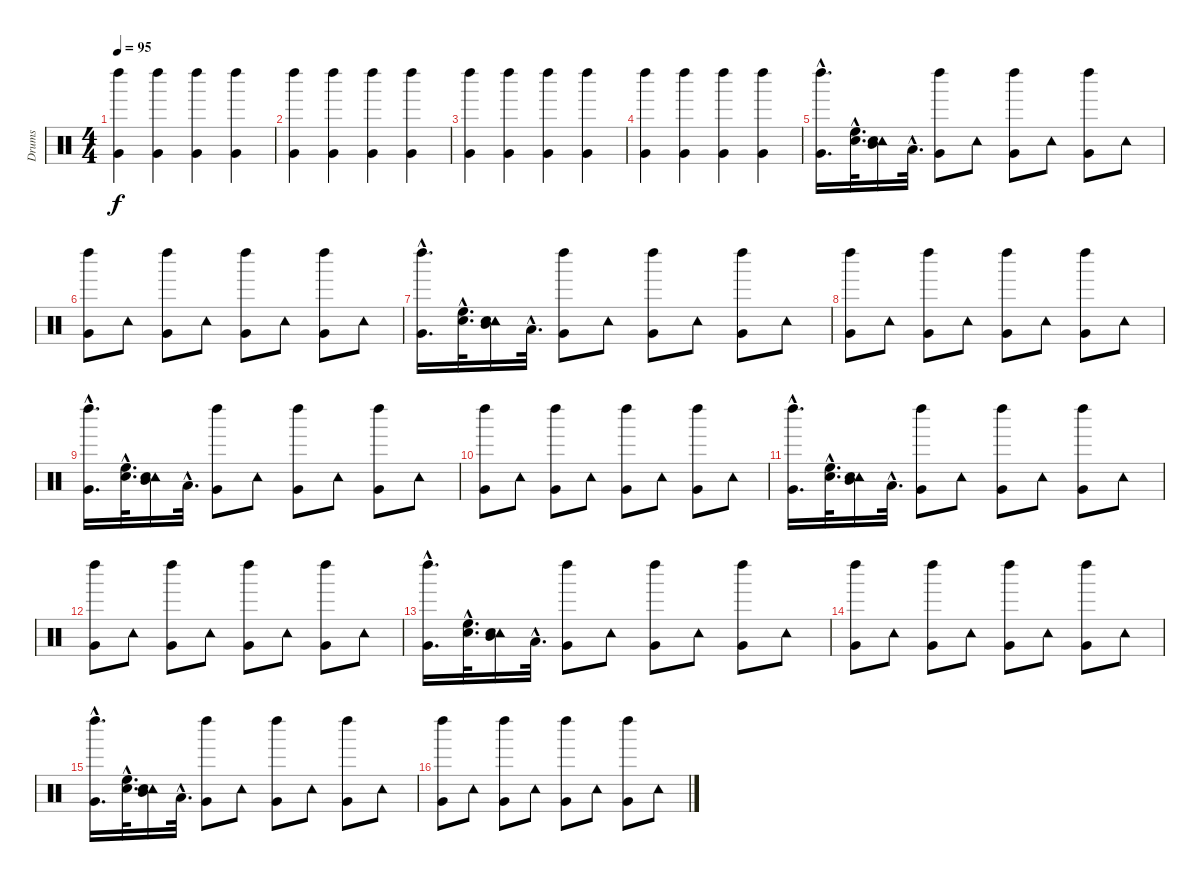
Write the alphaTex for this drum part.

\track ("Drums" "Drums") {instrument percussion}
\staff {score}
\articulation defaults
\ts (4 4)
\tempo 95
\clef neutral
\ks c
("Very Low Tom (hit)" "Left Maraca (hit)").4{dy f} ("Very Low Tom (hit)" "Left Maraca (hit)").4 ("Very Low Tom (hit)" "Left Maraca (hit)").4 ("Very Low Tom (hit)" "Left Maraca (hit)").4 |
("Very Low Tom (hit)" "Left Maraca (hit)").4 ("Very Low Tom (hit)" "Left Maraca (hit)").4 ("Very Low Tom (hit)" "Left Maraca (hit)").4 ("Very Low Tom (hit)" "Left Maraca (hit)").4 |
("Very Low Tom (hit)" "Left Maraca (hit)").4 ("Very Low Tom (hit)" "Left Maraca (hit)").4 ("Very Low Tom (hit)" "Left Maraca (hit)").4 ("Very Low Tom (hit)" "Left Maraca (hit)").4 |
("Very Low Tom (hit)" "Left Maraca (hit)").4 ("Very Low Tom (hit)" "Left Maraca (hit)").4 ("Very Low Tom (hit)" "Left Maraca (hit)").4 ("Very Low Tom (hit)" "Left Maraca (hit)").4 |
("Very Low Tom (hit)"{hac} "Left Maraca (hit)"{hac}).16{d} ("High Floor Tom (hit)"{hac} "Snare (hit) 2"{hac}).32{d} ("Mid Tom (hit)" "Tambourine (hit)" "Snare (hit) 2").16 "Low Tom (hit)"{hac}.32{d} ("Very Low Tom (hit)" "Left Maraca (hit)").8 "Tambourine (hit)".8 ("Very Low Tom (hit)" "Left Maraca (hit)").8 "Tambourine (hit)".8 ("Very Low Tom (hit)" "Left Maraca (hit)").8 "Tambourine (hit)".8 |
("Very Low Tom (hit)" "Left Maraca (hit)").8 "Tambourine (hit)".8 ("Very Low Tom (hit)" "Left Maraca (hit)").8 "Tambourine (hit)".8 ("Very Low Tom (hit)" "Left Maraca (hit)").8 "Tambourine (hit)".8 ("Very Low Tom (hit)" "Left Maraca (hit)").8 "Tambourine (hit)".8 |
("Very Low Tom (hit)"{hac} "Left Maraca (hit)"{hac}).16{d} ("High Floor Tom (hit)"{hac} "Snare (hit) 2"{hac}).32{d} ("Mid Tom (hit)" "Tambourine (hit)" "Snare (hit) 2").16 "Low Tom (hit)"{hac}.32{d} ("Very Low Tom (hit)" "Left Maraca (hit)").8 "Tambourine (hit)".8 ("Very Low Tom (hit)" "Left Maraca (hit)").8 "Tambourine (hit)".8 ("Very Low Tom (hit)" "Left Maraca (hit)").8 "Tambourine (hit)".8 |
("Very Low Tom (hit)" "Left Maraca (hit)").8 "Tambourine (hit)".8 ("Very Low Tom (hit)" "Left Maraca (hit)").8 "Tambourine (hit)".8 ("Very Low Tom (hit)" "Left Maraca (hit)").8 "Tambourine (hit)".8 ("Very Low Tom (hit)" "Left Maraca (hit)").8 "Tambourine (hit)".8 |
("Very Low Tom (hit)"{hac} "Left Maraca (hit)"{hac}).16{d} ("High Floor Tom (hit)"{hac} "Snare (hit) 2"{hac}).32{d} ("Mid Tom (hit)" "Tambourine (hit)" "Snare (hit) 2").16 "Low Tom (hit)"{hac}.32{d} ("Very Low Tom (hit)" "Left Maraca (hit)").8 "Tambourine (hit)".8 ("Very Low Tom (hit)" "Left Maraca (hit)").8 "Tambourine (hit)".8 ("Very Low Tom (hit)" "Left Maraca (hit)").8 "Tambourine (hit)".8 |
("Very Low Tom (hit)" "Left Maraca (hit)").8 "Tambourine (hit)".8 ("Very Low Tom (hit)" "Left Maraca (hit)").8 "Tambourine (hit)".8 ("Very Low Tom (hit)" "Left Maraca (hit)").8 "Tambourine (hit)".8 ("Very Low Tom (hit)" "Left Maraca (hit)").8 "Tambourine (hit)".8 |
("Very Low Tom (hit)"{hac} "Left Maraca (hit)"{hac}).16{d} ("High Floor Tom (hit)"{hac} "Snare (hit) 2"{hac}).32{d} ("Mid Tom (hit)" "Tambourine (hit)" "Snare (hit) 2").16 "Low Tom (hit)"{hac}.32{d} ("Very Low Tom (hit)" "Left Maraca (hit)").8 "Tambourine (hit)".8 ("Very Low Tom (hit)" "Left Maraca (hit)").8 "Tambourine (hit)".8 ("Very Low Tom (hit)" "Left Maraca (hit)").8 "Tambourine (hit)".8 |
("Very Low Tom (hit)" "Left Maraca (hit)").8 "Tambourine (hit)".8 ("Very Low Tom (hit)" "Left Maraca (hit)").8 "Tambourine (hit)".8 ("Very Low Tom (hit)" "Left Maraca (hit)").8 "Tambourine (hit)".8 ("Very Low Tom (hit)" "Left Maraca (hit)").8 "Tambourine (hit)".8 |
("Very Low Tom (hit)"{hac} "Left Maraca (hit)"{hac}).16{d} ("High Floor Tom (hit)"{hac} "Snare (hit) 2"{hac}).32{d} ("Mid Tom (hit)" "Tambourine (hit)" "Snare (hit) 2").16 "Low Tom (hit)"{hac}.32{d} ("Very Low Tom (hit)" "Left Maraca (hit)").8 "Tambourine (hit)".8 ("Very Low Tom (hit)" "Left Maraca (hit)").8 "Tambourine (hit)".8 ("Very Low Tom (hit)" "Left Maraca (hit)").8 "Tambourine (hit)".8 |
("Very Low Tom (hit)" "Left Maraca (hit)").8 "Tambourine (hit)".8 ("Very Low Tom (hit)" "Left Maraca (hit)").8 "Tambourine (hit)".8 ("Very Low Tom (hit)" "Left Maraca (hit)").8 "Tambourine (hit)".8 ("Very Low Tom (hit)" "Left Maraca (hit)").8 "Tambourine (hit)".8 |
("Very Low Tom (hit)"{hac} "Left Maraca (hit)"{hac}).16{d} ("High Floor Tom (hit)"{hac} "Snare (hit) 2"{hac}).32{d} ("Mid Tom (hit)" "Tambourine (hit)" "Snare (hit) 2").16 "Low Tom (hit)"{hac}.32{d} ("Very Low Tom (hit)" "Left Maraca (hit)").8 "Tambourine (hit)".8 ("Very Low Tom (hit)" "Left Maraca (hit)").8 "Tambourine (hit)".8 ("Very Low Tom (hit)" "Left Maraca (hit)").8 "Tambourine (hit)".8 |
("Very Low Tom (hit)" "Left Maraca (hit)").8 "Tambourine (hit)".8 ("Very Low Tom (hit)" "Left Maraca (hit)").8 "Tambourine (hit)".8 ("Very Low Tom (hit)" "Left Maraca (hit)").8 "Tambourine (hit)".8 ("Very Low Tom (hit)" "Left Maraca (hit)").8 "Tambourine (hit)".8
